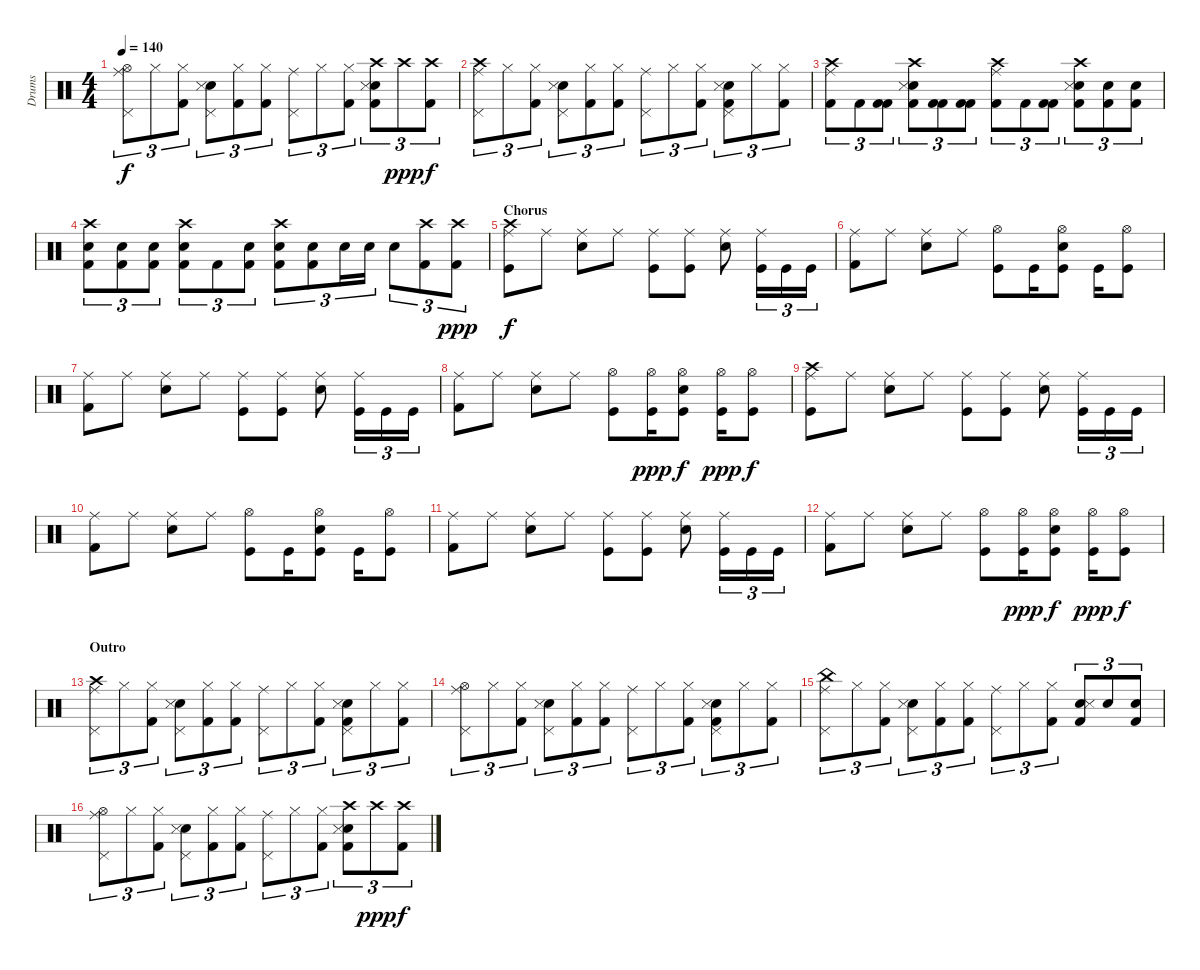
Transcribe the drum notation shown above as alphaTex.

\track ("Drums" "Drums") {instrument percussion}
\staff {score}
\articulation defaults
\ts (4 4)
\tempo 140
\clef neutral
\ks c
("Pedal Hi-Hat (hit)" "Ride (middle)" "Hi-Hat (open)").8{tu (3 2) dy f} "Hi-Hat (closed)".8{tu (3 2)} ("Hi-Hat (closed)" "Kick (hit) 2").8{tu (3 2)} ("Pedal Hi-Hat (hit)" "Electric Snare (hit)" "Snare (side stick) 3").8{tu (3 2)} ("Hi-Hat (closed)" "Kick (hit) 2").8{tu (3 2)} ("Hi-Hat (closed)" "Kick (hit) 2").8{tu (3 2)} ("Pedal Hi-Hat (hit)" "Ride (middle)").8{tu (3 2)} "Hi-Hat (closed)".8{tu (3 2)} ("Hi-Hat (closed)" "Kick (hit) 2").8{tu (3 2)} ("Crash high (hit)" "Electric Snare (hit)" "Snare (side stick) 3" "Kick (hit) 2").8{tu (3 2)} "Crash high (hit)".8{tu (3 2) dy ppp} ("Crash high (hit)" "Kick (hit) 2").8{tu (3 2) dy f} |
("Pedal Hi-Hat (hit)" "Ride (middle)" "Crash high (hit)").8{tu (3 2)} "Hi-Hat (closed)".8{tu (3 2)} ("Hi-Hat (closed)" "Kick (hit) 2").8{tu (3 2)} ("Pedal Hi-Hat (hit)" "Electric Snare (hit)" "Snare (side stick) 3").8{tu (3 2)} ("Hi-Hat (closed)" "Kick (hit) 2").8{tu (3 2)} ("Hi-Hat (closed)" "Kick (hit) 2").8{tu (3 2)} ("Pedal Hi-Hat (hit)" "Ride (middle)").8{tu (3 2)} "Hi-Hat (closed)".8{tu (3 2)} ("Hi-Hat (closed)" "Kick (hit) 2").8{tu (3 2)} ("Pedal Hi-Hat (hit)" "Electric Snare (hit)" "Snare (side stick) 3" "Kick (hit) 2").8{tu (3 2)} "Hi-Hat (closed)".8{tu (3 2)} ("Hi-Hat (closed)" "Kick (hit) 2").8{tu (3 2)} |
("Kick (hit) 2" "Ride (middle)" "Crash high (hit)").8{tu (3 2)} "Kick (hit) 2".8{tu (3 2)} ("Kick (hit) 2" "Kick (hit) 2").8{tu (3 2)} ("Kick (hit) 2" "Electric Snare (hit)" "Snare (side stick) 3" "Crash high (hit)").8{tu (3 2)} ("Kick (hit) 2" "Kick (hit) 2").8{tu (3 2)} ("Kick (hit) 2" "Kick (hit) 2").8{tu (3 2)} ("Kick (hit) 2" "Ride (middle)" "Crash high (hit)").8{tu (3 2)} "Kick (hit) 2".8{tu (3 2)} ("Kick (hit) 2" "Kick (hit) 2").8{tu (3 2)} ("Kick (hit) 2" "Electric Snare (hit)" "Snare (side stick) 3" "Crash high (hit)").8{tu (3 2)} ("Kick (hit) 2" "Electric Snare (hit)").8{tu (3 2)} ("Kick (hit) 2" "Electric Snare (hit)").8{tu (3 2)} |
("Crash high (hit)" "Electric Snare (hit)" "Kick (hit) 2").8{tu (3 2)} ("Electric Snare (hit)" "Kick (hit) 2").8{tu (3 2)} ("Electric Snare (hit)" "Kick (hit) 2").8{tu (3 2)} ("Crash high (hit)" "Electric Snare (hit)" "Kick (hit) 2").8{tu (3 2)} "Kick (hit) 2".8{tu (3 2)} ("Electric Snare (hit)" "Kick (hit) 2").8{tu (3 2)} ("Crash high (hit)" "Electric Snare (hit)" "Kick (hit) 2").8{tu (3 2)} ("Electric Snare (hit)" "Kick (hit) 2").8{tu (3 2)} "Electric Snare (hit)".16{tu (3 2)} "Electric Snare (hit)".16{tu (3 2)} "Electric Snare (hit)".8{tu (3 2)} ("Kick (hit) 2" "Crash high (hit)").8{tu (3 2)} ("Kick (hit) 2" "Crash high (hit)").8{tu (3 2) dy ppp} |
\section ("" "Chorus")
("Ride (middle)" "Kick (hit)" "Crash high (hit)").8{dy f} "Ride (middle)".8 ("Ride (middle)" "Electric Snare (hit)").8 "Ride (middle)".8 ("Ride (middle)" "Kick (hit)").8 ("Ride (middle)" "Kick (hit)").8 ("Ride (middle)" "Electric Snare (hit)").8 ("Ride (middle)" "Kick (hit)").16{tu (3 2)} "Kick (hit)".16{tu (3 2)} "Kick (hit)".16{tu (3 2)} |
("Ride (middle)" "Kick (hit) 2").8 "Ride (middle)".8 ("Ride (middle)" "Electric Snare (hit)").8 "Ride (middle)".8 ("Kick (hit)" "Hi-Hat (open)").8 "Kick (hit)".16 ("Kick (hit)" "Hi-Hat (open)" "Electric Snare (hit)").8 "Kick (hit)".16 ("Kick (hit)" "Hi-Hat (open)").8 |
("Ride (middle)" "Kick (hit) 2").8 "Ride (middle)".8 ("Ride (middle)" "Electric Snare (hit)").8 "Ride (middle)".8 ("Ride (middle)" "Kick (hit)").8 ("Ride (middle)" "Kick (hit)").8 ("Ride (middle)" "Electric Snare (hit)").8 ("Ride (middle)" "Kick (hit)").16{tu (3 2)} "Kick (hit)".16{tu (3 2)} "Kick (hit)".16{tu (3 2)} |
("Ride (middle)" "Kick (hit) 2").8 "Ride (middle)".8 ("Ride (middle)" "Electric Snare (hit)").8 "Ride (middle)".8 ("Kick (hit)" "Hi-Hat (open)").8 ("Kick (hit)" "Hi-Hat (open)").16{dy ppp} ("Kick (hit)" "Hi-Hat (open)" "Electric Snare (hit)").8{dy f} ("Kick (hit)" "Hi-Hat (open)").16{dy ppp} ("Kick (hit)" "Hi-Hat (open)").8{dy f} |
("Ride (middle)" "Kick (hit)" "Crash high (hit)").8 "Ride (middle)".8 ("Ride (middle)" "Electric Snare (hit)").8 "Ride (middle)".8 ("Ride (middle)" "Kick (hit)").8 ("Ride (middle)" "Kick (hit)").8 ("Ride (middle)" "Electric Snare (hit)").8 ("Ride (middle)" "Kick (hit)").16{tu (3 2)} "Kick (hit)".16{tu (3 2)} "Kick (hit)".16{tu (3 2)} |
("Ride (middle)" "Kick (hit) 2").8 "Ride (middle)".8 ("Ride (middle)" "Electric Snare (hit)").8 "Ride (middle)".8 ("Kick (hit)" "Hi-Hat (open)").8 "Kick (hit)".16 ("Kick (hit)" "Hi-Hat (open)" "Electric Snare (hit)").8 "Kick (hit)".16 ("Kick (hit)" "Hi-Hat (open)").8 |
("Ride (middle)" "Kick (hit) 2").8 "Ride (middle)".8 ("Ride (middle)" "Electric Snare (hit)").8 "Ride (middle)".8 ("Ride (middle)" "Kick (hit)").8 ("Ride (middle)" "Kick (hit)").8 ("Ride (middle)" "Electric Snare (hit)").8 ("Ride (middle)" "Kick (hit)").16{tu (3 2)} "Kick (hit)".16{tu (3 2)} "Kick (hit)".16{tu (3 2)} |
("Ride (middle)" "Kick (hit) 2").8 "Ride (middle)".8 ("Ride (middle)" "Electric Snare (hit)").8 "Ride (middle)".8 ("Kick (hit)" "Hi-Hat (open)").8 ("Kick (hit)" "Hi-Hat (open)").16{dy ppp} ("Kick (hit)" "Hi-Hat (open)" "Electric Snare (hit)").8{dy f} ("Kick (hit)" "Hi-Hat (open)").16{dy ppp} ("Kick (hit)" "Hi-Hat (open)").8{dy f} |
\section ("" "Outro")
("Pedal Hi-Hat (hit)" "Ride (middle)" "Crash high (hit)").8{tu (3 2)} "Hi-Hat (closed)".8{tu (3 2)} ("Hi-Hat (closed)" "Kick (hit) 2").8{tu (3 2)} ("Pedal Hi-Hat (hit)" "Electric Snare (hit)" "Snare (side stick) 3").8{tu (3 2)} ("Hi-Hat (closed)" "Kick (hit) 2").8{tu (3 2)} ("Hi-Hat (closed)" "Kick (hit) 2").8{tu (3 2)} ("Pedal Hi-Hat (hit)" "Ride (middle)").8{tu (3 2)} "Hi-Hat (closed)".8{tu (3 2)} ("Hi-Hat (closed)" "Kick (hit) 2").8{tu (3 2)} ("Pedal Hi-Hat (hit)" "Electric Snare (hit)" "Snare (side stick) 3" "Kick (hit) 2").8{tu (3 2)} "Hi-Hat (closed)".8{tu (3 2)} ("Hi-Hat (closed)" "Kick (hit) 2").8{tu (3 2)} |
("Pedal Hi-Hat (hit)" "Ride (middle)" "Hi-Hat (open)").8{tu (3 2)} "Hi-Hat (closed)".8{tu (3 2)} ("Hi-Hat (closed)" "Kick (hit) 2").8{tu (3 2)} ("Pedal Hi-Hat (hit)" "Electric Snare (hit)" "Snare (side stick) 3").8{tu (3 2)} ("Hi-Hat (closed)" "Kick (hit) 2").8{tu (3 2)} ("Hi-Hat (closed)" "Kick (hit) 2").8{tu (3 2)} ("Pedal Hi-Hat (hit)" "Ride (middle)").8{tu (3 2)} "Hi-Hat (closed)".8{tu (3 2)} ("Hi-Hat (closed)" "Kick (hit) 2").8{tu (3 2)} ("Pedal Hi-Hat (hit)" "Electric Snare (hit)" "Snare (side stick) 3" "Kick (hit) 2").8{tu (3 2)} "Hi-Hat (closed)".8{tu (3 2)} ("Hi-Hat (closed)" "Kick (hit) 2").8{tu (3 2)} |
("Pedal Hi-Hat (hit)" "Ride (middle)" "China (hit)").8{tu (3 2)} "Hi-Hat (closed)".8{tu (3 2)} ("Hi-Hat (closed)" "Kick (hit) 2").8{tu (3 2)} ("Pedal Hi-Hat (hit)" "Electric Snare (hit)" "Snare (side stick) 3").8{tu (3 2)} ("Hi-Hat (closed)" "Kick (hit) 2").8{tu (3 2)} ("Hi-Hat (closed)" "Kick (hit) 2").8{tu (3 2)} ("Pedal Hi-Hat (hit)" "Ride (middle)").8{tu (3 2)} "Hi-Hat (closed)".8{tu (3 2)} ("Hi-Hat (closed)" "Kick (hit) 2").8{tu (3 2)} ("Electric Snare (hit)" "Snare (side stick) 3" "Kick (hit) 2").8{tu (3 2)} "Electric Snare (hit)".8{tu (3 2)} ("Electric Snare (hit)" "Kick (hit) 2").8{tu (3 2)} |
("Pedal Hi-Hat (hit)" "Ride (middle)" "Hi-Hat (open)").8{tu (3 2)} "Hi-Hat (closed)".8{tu (3 2)} ("Hi-Hat (closed)" "Kick (hit) 2").8{tu (3 2)} ("Pedal Hi-Hat (hit)" "Electric Snare (hit)" "Snare (side stick) 3").8{tu (3 2)} ("Hi-Hat (closed)" "Kick (hit) 2").8{tu (3 2)} ("Hi-Hat (closed)" "Kick (hit) 2").8{tu (3 2)} ("Pedal Hi-Hat (hit)" "Ride (middle)").8{tu (3 2)} "Hi-Hat (closed)".8{tu (3 2)} ("Hi-Hat (closed)" "Kick (hit) 2").8{tu (3 2)} ("Crash high (hit)" "Electric Snare (hit)" "Snare (side stick) 3" "Kick (hit) 2").8{tu (3 2)} "Crash high (hit)".8{tu (3 2) dy ppp} ("Crash high (hit)" "Kick (hit) 2").8{tu (3 2) dy f}
